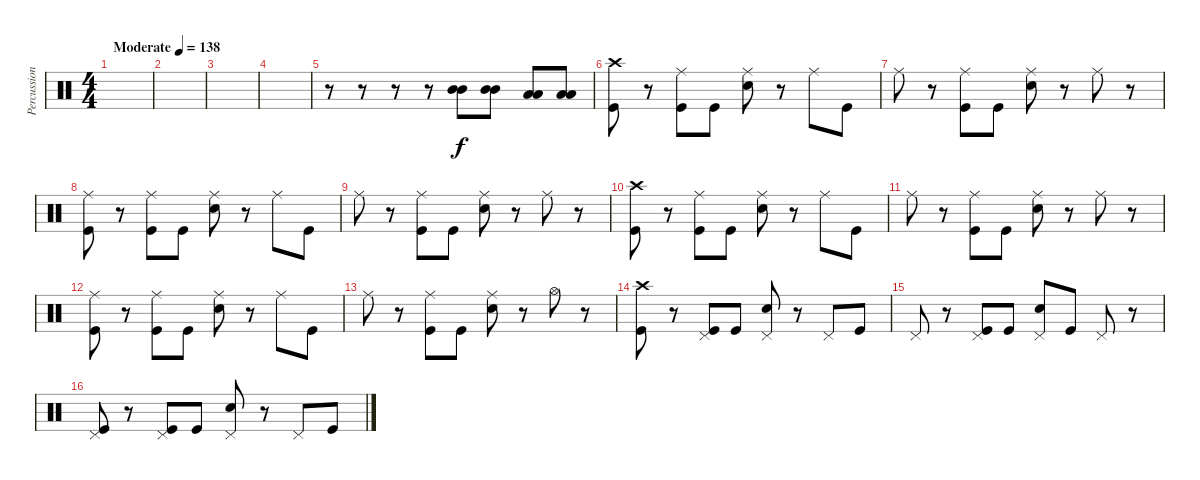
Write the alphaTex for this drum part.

\track ("Percussion" "Percussion") {instrument percussion}
\staff {score}
\articulation defaults
\ts (4 4)
\tempo (138 "Moderate")
\clef neutral
\ks c
|
|
|
|
r.8 r.8 r.8 r.8 ("Mid Tom (hit)" "Mid Tom (hit)").8 ("Mid Tom (hit)" "Mid Tom (hit)").8 ("Low Tom (hit)" "Low Tom (hit)").8 ("Low Tom (hit)" "Low Tom (hit)").8 |
("Crash high (hit)" "Kick (hit)").8 r.8 ("Ride (middle)" "Kick (hit)").8 "Kick (hit)".8 ("Snare (hit) 2" "Ride (middle)").8 r.8 "Ride (middle)".8 "Kick (hit)".8 |
"Ride (middle)".8 r.8 ("Ride (middle)" "Kick (hit)").8 "Kick (hit)".8 ("Snare (hit) 2" "Ride (middle)").8 r.8 "Ride (middle)".8 r.8 |
("Ride (middle)" "Kick (hit)").8 r.8 ("Ride (middle)" "Kick (hit)").8 "Kick (hit)".8 ("Snare (hit) 2" "Ride (middle)").8 r.8 "Ride (middle)".8 "Kick (hit)".8 |
"Ride (middle)".8 r.8 ("Ride (middle)" "Kick (hit)").8 "Kick (hit)".8 ("Snare (hit) 2" "Ride (middle)").8 r.8 "Ride (middle)".8 r.8 |
("Crash high (hit)" "Kick (hit)").8 r.8 ("Ride (middle)" "Kick (hit)").8 "Kick (hit)".8 ("Snare (hit) 2" "Ride (middle)").8 r.8 "Ride (middle)".8 "Kick (hit)".8 |
"Ride (middle)".8 r.8 ("Ride (middle)" "Kick (hit)").8 "Kick (hit)".8 ("Snare (hit) 2" "Ride (middle)").8 r.8 "Ride (middle)".8 r.8 |
("Ride (middle)" "Kick (hit)").8 r.8 ("Ride (middle)" "Kick (hit)").8 "Kick (hit)".8 ("Snare (hit) 2" "Ride (middle)").8 r.8 "Ride (middle)".8 "Kick (hit)".8 |
"Ride (middle)".8 r.8 ("Ride (middle)" "Kick (hit)").8 "Kick (hit)".8 ("Snare (hit) 2" "Ride (middle)").8 r.8 "Hi-Hat (open)".8 r.8 |
("Crash high (hit)" "Kick (hit)").8 r.8 ("Pedal Hi-Hat (hit)" "Kick (hit)").8 "Kick (hit)".8 ("Snare (hit) 2" "Pedal Hi-Hat (hit)").8 r.8 "Pedal Hi-Hat (hit)".8 "Kick (hit)".8 |
"Pedal Hi-Hat (hit)".8 r.8 ("Pedal Hi-Hat (hit)" "Kick (hit)").8 "Kick (hit)".8 ("Snare (hit) 2" "Pedal Hi-Hat (hit)").8 "Kick (hit)".8 "Pedal Hi-Hat (hit)".8 r.8 |
("Pedal Hi-Hat (hit)" "Kick (hit)").8 r.8 ("Pedal Hi-Hat (hit)" "Kick (hit)").8 "Kick (hit)".8 ("Snare (hit) 2" "Pedal Hi-Hat (hit)").8 r.8 "Pedal Hi-Hat (hit)".8 "Kick (hit)".8
